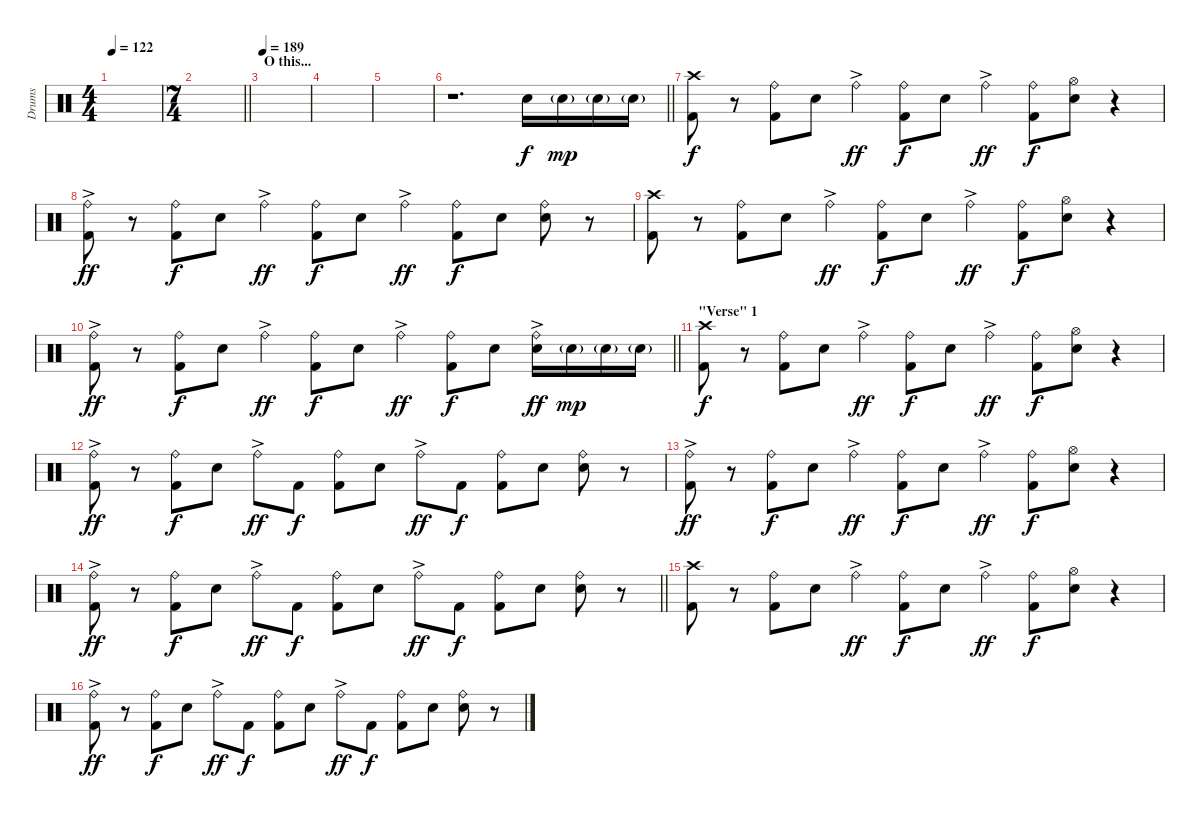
\track ("Drums" "Drums") {instrument percussion}
\staff {score}
\articulation defaults
\ts (4 4)
\tempo 122
\clef neutral
\ks c
|
\ts (7 4)
\barLineRight lightlight
|
\section ("" "O this...")
\tempo 189
|
|
|
\barLineRight lightlight
r.1{d} "Snare (hit) 2".16 "Snare (hit) 2"{g}.16{dy mp} "Electric Snare (hit)"{g}.16 "Electric Snare (hit)"{g}.16 |
\section ("" "")
("Crash high (hit)" "Kick (hit) 2").8{dy f} r.8 ("Ride (bell)" "Kick (hit) 2").8 "Snare (hit) 2".8 "Ride (bell)"{ac}.4{dy ff} ("Ride (bell)" "Kick (hit) 2").8{dy f} "Snare (hit) 2".8 "Ride (bell)"{ac}.4{dy ff} ("Ride (bell)" "Kick (hit) 2").8{dy f} ("Hi-Hat (open)" "Snare (hit) 2").8 r.4 |
("Ride (bell)"{ac} "Kick (hit) 2").8{dy ff} r.8 ("Ride (bell)" "Kick (hit) 2").8{dy f} "Snare (hit) 2".8 "Ride (bell)"{ac}.4{dy ff} ("Ride (bell)" "Kick (hit) 2").8{dy f} "Snare (hit) 2".8 "Ride (bell)"{ac}.4{dy ff} ("Ride (bell)" "Kick (hit) 2").8{dy f} "Snare (hit) 2".8 ("Ride (bell)" "Electric Snare (hit)").8 r.8 |
("Crash high (hit)" "Kick (hit) 2").8 r.8 ("Ride (bell)" "Kick (hit) 2").8 "Snare (hit) 2".8 "Ride (bell)"{ac}.4{dy ff} ("Ride (bell)" "Kick (hit) 2").8{dy f} "Snare (hit) 2".8 "Ride (bell)"{ac}.4{dy ff} ("Ride (bell)" "Kick (hit) 2").8{dy f} ("Hi-Hat (open)" "Snare (hit) 2").8 r.4 |
\barLineRight lightlight
("Ride (bell)"{ac} "Kick (hit) 2").8{dy ff} r.8 ("Ride (bell)" "Kick (hit) 2").8{dy f} "Snare (hit) 2".8 "Ride (bell)"{ac}.4{dy ff} ("Ride (bell)" "Kick (hit) 2").8{dy f} "Snare (hit) 2".8 "Ride (bell)"{ac}.4{dy ff} ("Ride (bell)" "Kick (hit) 2").8{dy f} "Snare (hit) 2".8 ("Ride (bell)"{ac} "Snare (hit) 2").16{dy ff} "Electric Snare (hit)"{g}.16{dy mp} "Electric Snare (hit)"{g}.16 "Electric Snare (hit)"{g}.16 |
\section ("" "\"Verse\" 1")
("Crash high (hit)" "Kick (hit) 2").8{dy f} r.8 ("Ride (bell)" "Kick (hit) 2").8 "Snare (hit) 2".8 "Ride (bell)"{ac}.4{dy ff} ("Ride (bell)" "Kick (hit) 2").8{dy f} "Snare (hit) 2".8 "Ride (bell)"{ac}.4{dy ff} ("Ride (bell)" "Kick (hit) 2").8{dy f} ("Hi-Hat (open)" "Snare (hit) 2").8 r.4 |
("Ride (bell)"{ac} "Kick (hit) 2").8{dy ff} r.8 ("Ride (bell)" "Kick (hit) 2").8{dy f} "Snare (hit) 2".8 "Ride (bell)"{ac}.8{dy ff} "Kick (hit) 2".8{dy f} ("Ride (bell)" "Kick (hit) 2").8 "Snare (hit) 2".8 "Ride (bell)"{ac}.8{dy ff} "Kick (hit) 2".8{dy f} ("Ride (bell)" "Kick (hit) 2").8 "Snare (hit) 2".8 ("Ride (bell)" "Electric Snare (hit)").8 r.8 |
("Ride (bell)"{ac} "Kick (hit) 2").8{dy ff} r.8 ("Ride (bell)" "Kick (hit) 2").8{dy f} "Snare (hit) 2".8 "Ride (bell)"{ac}.4{dy ff} ("Ride (bell)" "Kick (hit) 2").8{dy f} "Snare (hit) 2".8 "Ride (bell)"{ac}.4{dy ff} ("Ride (bell)" "Kick (hit) 2").8{dy f} ("Hi-Hat (open)" "Snare (hit) 2").8 r.4 |
\barLineRight lightlight
("Ride (bell)"{ac} "Kick (hit) 2").8{dy ff} r.8 ("Ride (bell)" "Kick (hit) 2").8{dy f} "Snare (hit) 2".8 "Ride (bell)"{ac}.8{dy ff} "Kick (hit) 2".8{dy f} ("Ride (bell)" "Kick (hit) 2").8 "Snare (hit) 2".8 "Ride (bell)"{ac}.8{dy ff} "Kick (hit) 2".8{dy f} ("Ride (bell)" "Kick (hit) 2").8 "Snare (hit) 2".8 ("Ride (bell)" "Electric Snare (hit)").8 r.8 |
\section ("" "")
("Crash high (hit)" "Kick (hit) 2").8 r.8 ("Ride (bell)" "Kick (hit) 2").8 "Snare (hit) 2".8 "Ride (bell)"{ac}.4{dy ff} ("Ride (bell)" "Kick (hit) 2").8{dy f} "Snare (hit) 2".8 "Ride (bell)"{ac}.4{dy ff} ("Ride (bell)" "Kick (hit) 2").8{dy f} ("Hi-Hat (open)" "Snare (hit) 2").8 r.4 |
("Ride (bell)"{ac} "Kick (hit) 2").8{dy ff} r.8 ("Ride (bell)" "Kick (hit) 2").8{dy f} "Snare (hit) 2".8 "Ride (bell)"{ac}.8{dy ff} "Kick (hit) 2".8{dy f} ("Ride (bell)" "Kick (hit) 2").8 "Snare (hit) 2".8 "Ride (bell)"{ac}.8{dy ff} "Kick (hit) 2".8{dy f} ("Ride (bell)" "Kick (hit) 2").8 "Snare (hit) 2".8 ("Ride (bell)" "Electric Snare (hit)").8 r.8
